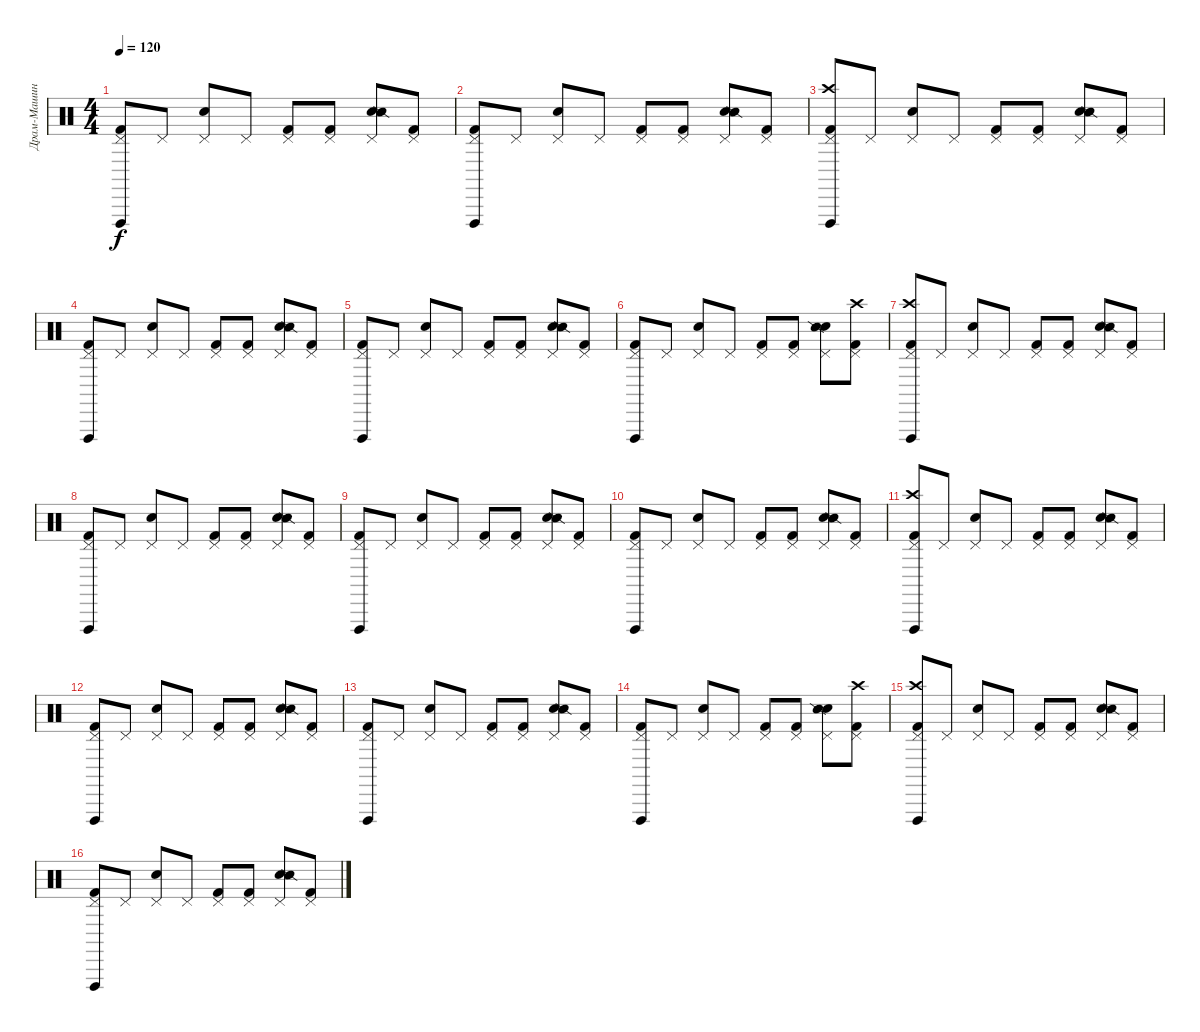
\track ("Драм-Машина" "Драм-Машин") {instrument percussion}
\staff {score}
\articulation defaults
\ts (4 4)
\tempo 120
\clef neutral
\ks c
("Vibraslap (hit)" "Kick (hit) 2" "Pedal Hi-Hat (hit)").8{dy f} "Pedal Hi-Hat (hit)".8 ("Electric Snare (hit)" "Pedal Hi-Hat (hit)").8 "Pedal Hi-Hat (hit)".8 ("Kick (hit) 2" "Pedal Hi-Hat (hit)").8 ("Kick (hit) 2" "Pedal Hi-Hat (hit)").8 ("Electric Snare (hit)" "Snare (side stick) 2" "Pedal Hi-Hat (hit)").8 ("Kick (hit) 2" "Pedal Hi-Hat (hit)").8 |
("Vibraslap (hit)" "Kick (hit) 2" "Pedal Hi-Hat (hit)").8 "Pedal Hi-Hat (hit)".8 ("Electric Snare (hit)" "Pedal Hi-Hat (hit)").8 "Pedal Hi-Hat (hit)".8 ("Kick (hit) 2" "Pedal Hi-Hat (hit)").8 ("Kick (hit) 2" "Pedal Hi-Hat (hit)").8 ("Electric Snare (hit)" "Snare (side stick) 2" "Pedal Hi-Hat (hit)").8 ("Kick (hit) 2" "Pedal Hi-Hat (hit)").8 |
("Crash high (hit)" "Vibraslap (hit)" "Kick (hit) 2" "Pedal Hi-Hat (hit)").8 "Pedal Hi-Hat (hit)".8 ("Electric Snare (hit)" "Pedal Hi-Hat (hit)").8 "Pedal Hi-Hat (hit)".8 ("Kick (hit) 2" "Pedal Hi-Hat (hit)").8 ("Kick (hit) 2" "Pedal Hi-Hat (hit)").8 ("Electric Snare (hit)" "Snare (side stick) 2" "Pedal Hi-Hat (hit)").8 ("Kick (hit) 2" "Pedal Hi-Hat (hit)").8 |
("Vibraslap (hit)" "Kick (hit) 2" "Pedal Hi-Hat (hit)").8 "Pedal Hi-Hat (hit)".8 ("Electric Snare (hit)" "Pedal Hi-Hat (hit)").8 "Pedal Hi-Hat (hit)".8 ("Kick (hit) 2" "Pedal Hi-Hat (hit)").8 ("Kick (hit) 2" "Pedal Hi-Hat (hit)").8 ("Electric Snare (hit)" "Snare (side stick) 2" "Pedal Hi-Hat (hit)").8 ("Kick (hit) 2" "Pedal Hi-Hat (hit)").8 |
("Vibraslap (hit)" "Kick (hit) 2" "Pedal Hi-Hat (hit)").8 "Pedal Hi-Hat (hit)".8 ("Electric Snare (hit)" "Pedal Hi-Hat (hit)").8 "Pedal Hi-Hat (hit)".8 ("Kick (hit) 2" "Pedal Hi-Hat (hit)").8 ("Kick (hit) 2" "Pedal Hi-Hat (hit)").8 ("Electric Snare (hit)" "Snare (side stick) 2" "Pedal Hi-Hat (hit)").8 ("Kick (hit) 2" "Pedal Hi-Hat (hit)").8 |
("Vibraslap (hit)" "Kick (hit) 2" "Pedal Hi-Hat (hit)").8 "Pedal Hi-Hat (hit)".8 ("Electric Snare (hit)" "Pedal Hi-Hat (hit)").8 "Pedal Hi-Hat (hit)".8 ("Kick (hit) 2" "Pedal Hi-Hat (hit)").8 ("Kick (hit) 2" "Pedal Hi-Hat (hit)").8 ("Electric Snare (hit)" "Snare (side stick) 2" "Pedal Hi-Hat (hit)").8 ("Kick (hit) 2" "Crash high (hit)" "Pedal Hi-Hat (hit)").8 |
("Crash high (hit)" "Vibraslap (hit)" "Kick (hit) 2" "Pedal Hi-Hat (hit)").8 "Pedal Hi-Hat (hit)".8 ("Electric Snare (hit)" "Pedal Hi-Hat (hit)").8 "Pedal Hi-Hat (hit)".8 ("Kick (hit) 2" "Pedal Hi-Hat (hit)").8 ("Kick (hit) 2" "Pedal Hi-Hat (hit)").8 ("Electric Snare (hit)" "Snare (side stick) 2" "Pedal Hi-Hat (hit)").8 ("Kick (hit) 2" "Pedal Hi-Hat (hit)").8 |
("Vibraslap (hit)" "Kick (hit) 2" "Pedal Hi-Hat (hit)").8 "Pedal Hi-Hat (hit)".8 ("Electric Snare (hit)" "Pedal Hi-Hat (hit)").8 "Pedal Hi-Hat (hit)".8 ("Kick (hit) 2" "Pedal Hi-Hat (hit)").8 ("Kick (hit) 2" "Pedal Hi-Hat (hit)").8 ("Electric Snare (hit)" "Snare (side stick) 2" "Pedal Hi-Hat (hit)").8 ("Kick (hit) 2" "Pedal Hi-Hat (hit)").8 |
("Vibraslap (hit)" "Kick (hit) 2" "Pedal Hi-Hat (hit)").8 "Pedal Hi-Hat (hit)".8 ("Electric Snare (hit)" "Pedal Hi-Hat (hit)").8 "Pedal Hi-Hat (hit)".8 ("Kick (hit) 2" "Pedal Hi-Hat (hit)").8 ("Kick (hit) 2" "Pedal Hi-Hat (hit)").8 ("Electric Snare (hit)" "Snare (side stick) 2" "Pedal Hi-Hat (hit)").8 ("Kick (hit) 2" "Pedal Hi-Hat (hit)").8 |
("Vibraslap (hit)" "Kick (hit) 2" "Pedal Hi-Hat (hit)").8 "Pedal Hi-Hat (hit)".8 ("Electric Snare (hit)" "Pedal Hi-Hat (hit)").8 "Pedal Hi-Hat (hit)".8 ("Kick (hit) 2" "Pedal Hi-Hat (hit)").8 ("Kick (hit) 2" "Pedal Hi-Hat (hit)").8 ("Electric Snare (hit)" "Snare (side stick) 2" "Pedal Hi-Hat (hit)").8 ("Kick (hit) 2" "Pedal Hi-Hat (hit)").8 |
("Crash high (hit)" "Vibraslap (hit)" "Kick (hit) 2" "Pedal Hi-Hat (hit)").8 "Pedal Hi-Hat (hit)".8 ("Electric Snare (hit)" "Pedal Hi-Hat (hit)").8 "Pedal Hi-Hat (hit)".8 ("Kick (hit) 2" "Pedal Hi-Hat (hit)").8 ("Kick (hit) 2" "Pedal Hi-Hat (hit)").8 ("Electric Snare (hit)" "Snare (side stick) 2" "Pedal Hi-Hat (hit)").8 ("Kick (hit) 2" "Pedal Hi-Hat (hit)").8 |
("Vibraslap (hit)" "Kick (hit) 2" "Pedal Hi-Hat (hit)").8 "Pedal Hi-Hat (hit)".8 ("Electric Snare (hit)" "Pedal Hi-Hat (hit)").8 "Pedal Hi-Hat (hit)".8 ("Kick (hit) 2" "Pedal Hi-Hat (hit)").8 ("Kick (hit) 2" "Pedal Hi-Hat (hit)").8 ("Electric Snare (hit)" "Snare (side stick) 2" "Pedal Hi-Hat (hit)").8 ("Kick (hit) 2" "Pedal Hi-Hat (hit)").8 |
("Vibraslap (hit)" "Kick (hit) 2" "Pedal Hi-Hat (hit)").8 "Pedal Hi-Hat (hit)".8 ("Electric Snare (hit)" "Pedal Hi-Hat (hit)").8 "Pedal Hi-Hat (hit)".8 ("Kick (hit) 2" "Pedal Hi-Hat (hit)").8 ("Kick (hit) 2" "Pedal Hi-Hat (hit)").8 ("Electric Snare (hit)" "Snare (side stick) 2" "Pedal Hi-Hat (hit)").8 ("Kick (hit) 2" "Pedal Hi-Hat (hit)").8 |
("Vibraslap (hit)" "Kick (hit) 2" "Pedal Hi-Hat (hit)").8 "Pedal Hi-Hat (hit)".8 ("Electric Snare (hit)" "Pedal Hi-Hat (hit)").8 "Pedal Hi-Hat (hit)".8 ("Kick (hit) 2" "Pedal Hi-Hat (hit)").8 ("Kick (hit) 2" "Pedal Hi-Hat (hit)").8 ("Electric Snare (hit)" "Snare (side stick) 2" "Pedal Hi-Hat (hit)").8 ("Kick (hit) 2" "Crash high (hit)" "Pedal Hi-Hat (hit)").8 |
("Crash high (hit)" "Vibraslap (hit)" "Kick (hit) 2" "Pedal Hi-Hat (hit)").8 "Pedal Hi-Hat (hit)".8 ("Electric Snare (hit)" "Pedal Hi-Hat (hit)").8 "Pedal Hi-Hat (hit)".8 ("Kick (hit) 2" "Pedal Hi-Hat (hit)").8 ("Kick (hit) 2" "Pedal Hi-Hat (hit)").8 ("Electric Snare (hit)" "Snare (side stick) 2" "Pedal Hi-Hat (hit)").8 ("Kick (hit) 2" "Pedal Hi-Hat (hit)").8 |
("Vibraslap (hit)" "Kick (hit) 2" "Pedal Hi-Hat (hit)").8 "Pedal Hi-Hat (hit)".8 ("Electric Snare (hit)" "Pedal Hi-Hat (hit)").8 "Pedal Hi-Hat (hit)".8 ("Kick (hit) 2" "Pedal Hi-Hat (hit)").8 ("Kick (hit) 2" "Pedal Hi-Hat (hit)").8 ("Electric Snare (hit)" "Snare (side stick) 2" "Pedal Hi-Hat (hit)").8 ("Kick (hit) 2" "Pedal Hi-Hat (hit)").8
